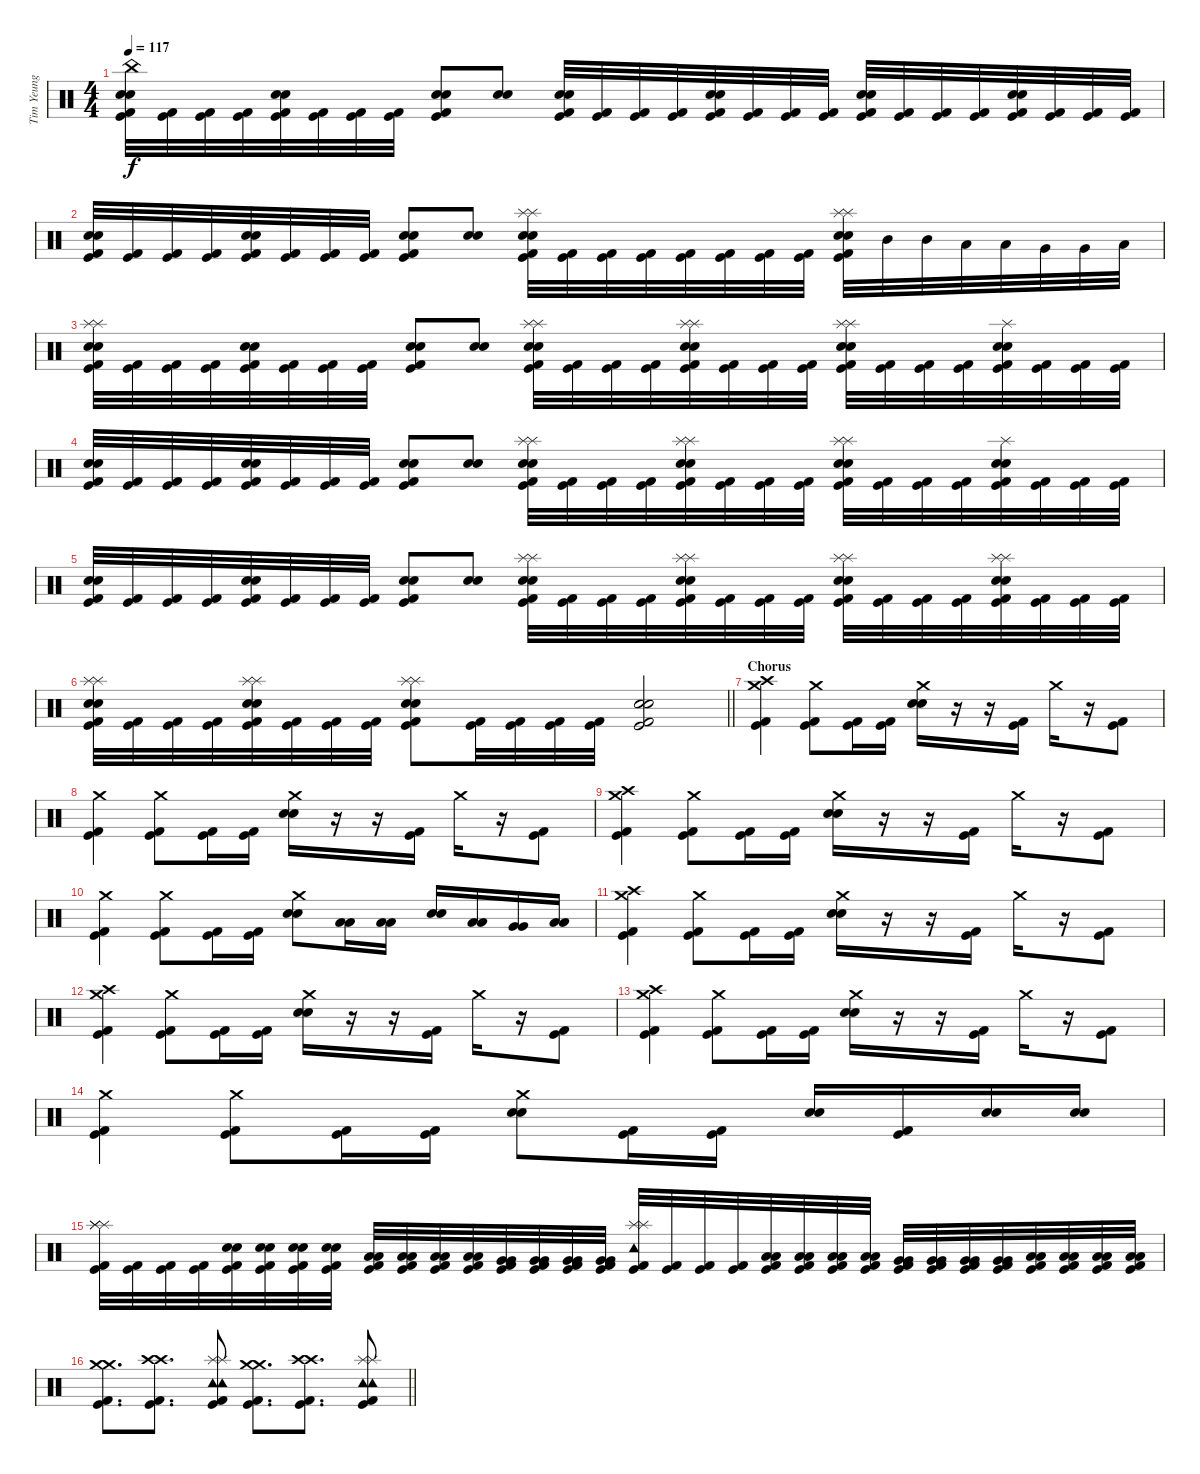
\track ("Tim Yeung" "Tim Yeung") {instrument percussion}
\staff {score}
\articulation defaults
\ts (4 4)
\tempo 117
\clef neutral
\ks c
("China (hit)" "Electric Snare (hit)" "Snare (hit) 2" "Kick (hit)" "Kick (hit) 2").32{dy f} ("Kick (hit)" "Kick (hit) 2").32 ("Kick (hit)" "Kick (hit) 2").32 ("Kick (hit)" "Kick (hit) 2").32 ("Electric Snare (hit)" "Snare (hit) 2" "Kick (hit)" "Kick (hit) 2").32 ("Kick (hit)" "Kick (hit) 2").32 ("Kick (hit)" "Kick (hit) 2").32 ("Kick (hit)" "Kick (hit) 2").32 ("Electric Snare (hit)" "Snare (hit) 2" "Kick (hit)" "Kick (hit) 2").8 ("Electric Snare (hit)" "Snare (hit) 2").8 ("Electric Snare (hit)" "Snare (hit) 2" "Kick (hit)" "Kick (hit) 2").32 ("Kick (hit)" "Kick (hit) 2").32 ("Kick (hit)" "Kick (hit) 2").32 ("Kick (hit)" "Kick (hit) 2").32 ("Electric Snare (hit)" "Snare (hit) 2" "Kick (hit)" "Kick (hit) 2").32 ("Kick (hit)" "Kick (hit) 2").32 ("Kick (hit)" "Kick (hit) 2").32 ("Kick (hit)" "Kick (hit) 2").32 ("Electric Snare (hit)" "Snare (hit) 2" "Kick (hit)" "Kick (hit) 2").32 ("Kick (hit)" "Kick (hit) 2").32 ("Kick (hit)" "Kick (hit) 2").32 ("Kick (hit)" "Kick (hit) 2").32 ("Electric Snare (hit)" "Snare (hit) 2" "Kick (hit)" "Kick (hit) 2").32 ("Kick (hit)" "Kick (hit) 2").32 ("Kick (hit)" "Kick (hit) 2").32 ("Kick (hit)" "Kick (hit) 2").32 |
("Electric Snare (hit)" "Snare (hit) 2" "Kick (hit)" "Kick (hit) 2").32 ("Kick (hit)" "Kick (hit) 2").32 ("Kick (hit)" "Kick (hit) 2").32 ("Kick (hit)" "Kick (hit) 2").32 ("Electric Snare (hit)" "Snare (hit) 2" "Kick (hit)" "Kick (hit) 2").32 ("Kick (hit)" "Kick (hit) 2").32 ("Kick (hit)" "Kick (hit) 2").32 ("Kick (hit)" "Kick (hit) 2").32 ("Electric Snare (hit)" "Snare (hit) 2" "Kick (hit)" "Kick (hit) 2").8 ("Electric Snare (hit)" "Snare (hit) 2").8 ("Splash (hit)" "Splash (hit)" "Electric Snare (hit)" "Snare (hit) 2" "Kick (hit)" "Kick (hit) 2").32 ("Kick (hit)" "Kick (hit) 2").32 ("Kick (hit)" "Kick (hit) 2").32 ("Kick (hit)" "Kick (hit) 2").32 ("Kick (hit)" "Kick (hit) 2").32 ("Kick (hit)" "Kick (hit) 2").32 ("Kick (hit)" "Kick (hit) 2").32 ("Kick (hit)" "Kick (hit) 2").32 ("Splash (hit)" "Splash (hit)" "Electric Snare (hit)" "Snare (hit) 2" "Kick (hit)" "Kick (hit) 2").32 "Mid Tom (hit)".32 "Mid Tom (hit)".32 "Low Tom (hit)".32 "Low Tom (hit)".32 "Very Low Tom (hit)".32 "Very Low Tom (hit)".32 "Low Floor Tom (hit)".32 |
("Splash (hit)" "Splash (hit)" "Electric Snare (hit)" "Snare (hit) 2" "Kick (hit)" "Kick (hit) 2").32 ("Kick (hit)" "Kick (hit) 2").32 ("Kick (hit)" "Kick (hit) 2").32 ("Kick (hit)" "Kick (hit) 2").32 ("Electric Snare (hit)" "Snare (hit) 2" "Kick (hit)" "Kick (hit) 2").32 ("Kick (hit)" "Kick (hit) 2").32 ("Kick (hit)" "Kick (hit) 2").32 ("Kick (hit)" "Kick (hit) 2").32 ("Electric Snare (hit)" "Snare (hit) 2" "Kick (hit)" "Kick (hit) 2").8 ("Electric Snare (hit)" "Snare (hit) 2").8 ("Splash (hit)" "Splash (hit)" "Electric Snare (hit)" "Snare (hit) 2" "Kick (hit)" "Kick (hit) 2").32 ("Kick (hit)" "Kick (hit) 2").32 ("Kick (hit)" "Kick (hit) 2").32 ("Kick (hit)" "Kick (hit) 2").32 ("Splash (hit)" "Splash (hit)" "Electric Snare (hit)" "Snare (hit) 2" "Kick (hit)" "Kick (hit) 2").32 ("Kick (hit)" "Kick (hit) 2").32 ("Kick (hit)" "Kick (hit) 2").32 ("Kick (hit)" "Kick (hit) 2").32 ("Splash (hit)" "Splash (hit)" "Electric Snare (hit)" "Snare (hit) 2" "Kick (hit)" "Kick (hit) 2").32 ("Kick (hit)" "Kick (hit) 2").32 ("Kick (hit)" "Kick (hit) 2").32 ("Kick (hit)" "Kick (hit) 2").32 ("Splash (hit)" "Electric Snare (hit)" "Snare (hit) 2" "Kick (hit)" "Kick (hit) 2").32 ("Kick (hit)" "Kick (hit) 2").32 ("Kick (hit)" "Kick (hit) 2").32 ("Kick (hit)" "Kick (hit) 2").32 |
("Electric Snare (hit)" "Snare (hit) 2" "Kick (hit)" "Kick (hit) 2").32 ("Kick (hit)" "Kick (hit) 2").32 ("Kick (hit)" "Kick (hit) 2").32 ("Kick (hit)" "Kick (hit) 2").32 ("Electric Snare (hit)" "Snare (hit) 2" "Kick (hit)" "Kick (hit) 2").32 ("Kick (hit)" "Kick (hit) 2").32 ("Kick (hit)" "Kick (hit) 2").32 ("Kick (hit)" "Kick (hit) 2").32 ("Electric Snare (hit)" "Snare (hit) 2" "Kick (hit)" "Kick (hit) 2").8 ("Electric Snare (hit)" "Snare (hit) 2").8 ("Splash (hit)" "Splash (hit)" "Electric Snare (hit)" "Snare (hit) 2" "Kick (hit)" "Kick (hit) 2").32 ("Kick (hit)" "Kick (hit) 2").32 ("Kick (hit)" "Kick (hit) 2").32 ("Kick (hit)" "Kick (hit) 2").32 ("Splash (hit)" "Splash (hit)" "Electric Snare (hit)" "Snare (hit) 2" "Kick (hit)" "Kick (hit) 2").32 ("Kick (hit)" "Kick (hit) 2").32 ("Kick (hit)" "Kick (hit) 2").32 ("Kick (hit)" "Kick (hit) 2").32 ("Splash (hit)" "Splash (hit)" "Electric Snare (hit)" "Snare (hit) 2" "Kick (hit)" "Kick (hit) 2").32 ("Kick (hit)" "Kick (hit) 2").32 ("Kick (hit)" "Kick (hit) 2").32 ("Kick (hit)" "Kick (hit) 2").32 ("Splash (hit)" "Electric Snare (hit)" "Snare (hit) 2" "Kick (hit)" "Kick (hit) 2").32 ("Kick (hit)" "Kick (hit) 2").32 ("Kick (hit)" "Kick (hit) 2").32 ("Kick (hit)" "Kick (hit) 2").32 |
("Electric Snare (hit)" "Snare (hit) 2" "Kick (hit)" "Kick (hit) 2").32 ("Kick (hit)" "Kick (hit) 2").32 ("Kick (hit)" "Kick (hit) 2").32 ("Kick (hit)" "Kick (hit) 2").32 ("Electric Snare (hit)" "Snare (hit) 2" "Kick (hit)" "Kick (hit) 2").32 ("Kick (hit)" "Kick (hit) 2").32 ("Kick (hit)" "Kick (hit) 2").32 ("Kick (hit)" "Kick (hit) 2").32 ("Electric Snare (hit)" "Snare (hit) 2" "Kick (hit)" "Kick (hit) 2").8 ("Electric Snare (hit)" "Snare (hit) 2").8 ("Splash (hit)" "Splash (hit)" "Electric Snare (hit)" "Snare (hit) 2" "Kick (hit)" "Kick (hit) 2").32 ("Kick (hit)" "Kick (hit) 2").32 ("Kick (hit)" "Kick (hit) 2").32 ("Kick (hit)" "Kick (hit) 2").32 ("Splash (hit)" "Splash (hit)" "Electric Snare (hit)" "Snare (hit) 2" "Kick (hit)" "Kick (hit) 2").32 ("Kick (hit)" "Kick (hit) 2").32 ("Kick (hit)" "Kick (hit) 2").32 ("Kick (hit)" "Kick (hit) 2").32 ("Splash (hit)" "Splash (hit)" "Electric Snare (hit)" "Snare (hit) 2" "Kick (hit)" "Kick (hit) 2").32 ("Kick (hit)" "Kick (hit) 2").32 ("Kick (hit)" "Kick (hit) 2").32 ("Kick (hit)" "Kick (hit) 2").32 ("Splash (hit)" "Splash (hit)" "Electric Snare (hit)" "Snare (hit) 2" "Kick (hit)" "Kick (hit) 2").32 ("Kick (hit)" "Kick (hit) 2").32 ("Kick (hit)" "Kick (hit) 2").32 ("Kick (hit)" "Kick (hit) 2").32 |
\barLineRight lightlight
("Splash (hit)" "Splash (hit)" "Electric Snare (hit)" "Snare (hit) 2" "Kick (hit)" "Kick (hit) 2").32 ("Kick (hit)" "Kick (hit) 2").32 ("Kick (hit)" "Kick (hit) 2").32 ("Kick (hit)" "Kick (hit) 2").32 ("Splash (hit)" "Splash (hit)" "Electric Snare (hit)" "Snare (hit) 2" "Kick (hit)" "Kick (hit) 2").32 ("Kick (hit)" "Kick (hit) 2").32 ("Kick (hit)" "Kick (hit) 2").32 ("Kick (hit)" "Kick (hit) 2").32 ("Splash (hit)" "Splash (hit)" "Electric Snare (hit)" "Snare (hit) 2" "Kick (hit)" "Kick (hit) 2").8 ("Kick (hit)" "Kick (hit) 2").32 ("Kick (hit)" "Kick (hit) 2").32 ("Kick (hit)" "Kick (hit) 2").32 ("Kick (hit)" "Kick (hit) 2").32 ("Electric Snare (hit)" "Snare (hit) 2" "Kick (hit)" "Kick (hit) 2").2 |
\section ("" "Chorus")
("Crash high (hit)" "Crash medium (hit)" "Kick (hit)" "Kick (hit) 2").4 ("Crash medium (hit)" "Kick (hit)" "Kick (hit) 2").8 ("Kick (hit)" "Kick (hit) 2").16 ("Kick (hit)" "Kick (hit) 2").16 ("Crash medium (hit)" "Electric Snare (hit)" "Snare (hit) 2").16 r.16 r.16 ("Kick (hit)" "Kick (hit) 2").16 "Crash medium (hit)".16 r.16 ("Kick (hit)" "Kick (hit) 2").8 |
("Crash medium (hit)" "Kick (hit)" "Kick (hit) 2").4 ("Crash medium (hit)" "Kick (hit)" "Kick (hit) 2").8 ("Kick (hit)" "Kick (hit) 2").16 ("Kick (hit)" "Kick (hit) 2").16 ("Crash medium (hit)" "Electric Snare (hit)" "Snare (hit) 2").16 r.16 r.16 ("Kick (hit)" "Kick (hit) 2").16 "Crash medium (hit)".16 r.16 ("Kick (hit)" "Kick (hit) 2").8 |
("Crash high (hit)" "Crash medium (hit)" "Kick (hit)" "Kick (hit) 2").4 ("Crash medium (hit)" "Kick (hit)" "Kick (hit) 2").8 ("Kick (hit)" "Kick (hit) 2").16 ("Kick (hit)" "Kick (hit) 2").16 ("Crash medium (hit)" "Electric Snare (hit)" "Snare (hit) 2").16 r.16 r.16 ("Kick (hit)" "Kick (hit) 2").16 "Crash medium (hit)".16 r.16 ("Kick (hit)" "Kick (hit) 2").8 |
("Crash medium (hit)" "Kick (hit)" "Kick (hit) 2").4 ("Crash medium (hit)" "Kick (hit)" "Kick (hit) 2").8 ("Kick (hit)" "Kick (hit) 2").16 ("Kick (hit)" "Kick (hit) 2").16 ("Crash medium (hit)" "Electric Snare (hit)" "Snare (hit) 2").8 ("Low Tom (hit)" "Low Tom (hit)").16 ("Low Tom (hit)" "Low Tom (hit)").16 ("Electric Snare (hit)" "Snare (hit) 2").16 ("Low Tom (hit)" "Low Tom (hit)").16 ("Very Low Tom (hit)" "Very Low Tom (hit)").16 ("Low Floor Tom (hit)" "Low Floor Tom (hit)").16 |
("Crash high (hit)" "Crash medium (hit)" "Kick (hit)" "Kick (hit) 2").4 ("Crash medium (hit)" "Kick (hit)" "Kick (hit) 2").8 ("Kick (hit)" "Kick (hit) 2").16 ("Kick (hit)" "Kick (hit) 2").16 ("Crash medium (hit)" "Electric Snare (hit)" "Snare (hit) 2").16 r.16 r.16 ("Kick (hit)" "Kick (hit) 2").16 "Crash medium (hit)".16 r.16 ("Kick (hit)" "Kick (hit) 2").8 |
("Crash high (hit)" "Crash medium (hit)" "Kick (hit)" "Kick (hit) 2").4 ("Crash medium (hit)" "Kick (hit)" "Kick (hit) 2").8 ("Kick (hit)" "Kick (hit) 2").16 ("Kick (hit)" "Kick (hit) 2").16 ("Crash medium (hit)" "Electric Snare (hit)" "Snare (hit) 2").16 r.16 r.16 ("Kick (hit)" "Kick (hit) 2").16 "Crash medium (hit)".16 r.16 ("Kick (hit)" "Kick (hit) 2").8 |
("Crash high (hit)" "Crash medium (hit)" "Kick (hit)" "Kick (hit) 2").4 ("Crash medium (hit)" "Kick (hit)" "Kick (hit) 2").8 ("Kick (hit)" "Kick (hit) 2").16 ("Kick (hit)" "Kick (hit) 2").16 ("Crash medium (hit)" "Electric Snare (hit)" "Snare (hit) 2").16 r.16 r.16 ("Kick (hit)" "Kick (hit) 2").16 "Crash medium (hit)".16 r.16 ("Kick (hit)" "Kick (hit) 2").8 |
("Crash medium (hit)" "Kick (hit)" "Kick (hit) 2").4 ("Crash medium (hit)" "Kick (hit)" "Kick (hit) 2").8 ("Kick (hit)" "Kick (hit) 2").16 ("Kick (hit)" "Kick (hit) 2").16 ("Crash medium (hit)" "Electric Snare (hit)" "Snare (hit) 2").8 ("Kick (hit)" "Kick (hit) 2").16 ("Kick (hit)" "Kick (hit) 2").16 ("Electric Snare (hit)" "Snare (hit) 2").16 ("Kick (hit)" "Kick (hit) 2").16 ("Electric Snare (hit)" "Snare (hit) 2").16 ("Electric Snare (hit)" "Snare (hit) 2").16 |
("Splash (hit)" "Splash (hit)" "Splash (hit)" "Kick (hit)" "Kick (hit) 2").32 ("Kick (hit)" "Kick (hit) 2").32 ("Kick (hit)" "Kick (hit) 2").32 ("Kick (hit)" "Kick (hit) 2").32 ("Electric Snare (hit)" "Snare (hit) 2" "Kick (hit)" "Kick (hit) 2").32 ("Electric Snare (hit)" "Snare (hit) 2" "Kick (hit)" "Kick (hit) 2").32 ("Electric Snare (hit)" "Snare (hit) 2" "Kick (hit)" "Kick (hit) 2").32 ("Electric Snare (hit)" "Snare (hit) 2" "Kick (hit)" "Kick (hit) 2").32 ("Low Tom (hit)" "Low Tom (hit)" "Kick (hit)" "Kick (hit) 2").32 ("Low Tom (hit)" "Low Tom (hit)" "Kick (hit)" "Kick (hit) 2").32 ("Low Tom (hit)" "Low Tom (hit)" "Kick (hit)" "Kick (hit) 2").32 ("Low Tom (hit)" "Low Tom (hit)" "Kick (hit)" "Kick (hit) 2").32 ("Very Low Tom (hit)" "Very Low Tom (hit)" "Kick (hit)" "Kick (hit) 2").32 ("Very Low Tom (hit)" "Very Low Tom (hit)" "Kick (hit)" "Kick (hit) 2").32 ("Very Low Tom (hit)" "Very Low Tom (hit)" "Kick (hit)" "Kick (hit) 2").32 ("Very Low Tom (hit)" "Very Low Tom (hit)" "Kick (hit)" "Kick (hit) 2").32 ("Tambourine (hit)" "Splash (hit)" "Splash (hit)" "Kick (hit)" "Kick (hit) 2").32 ("Kick (hit)" "Kick (hit) 2").32 ("Kick (hit)" "Kick (hit) 2").32 ("Kick (hit)" "Kick (hit) 2").32 ("Low Tom (hit)" "Low Tom (hit)" "Kick (hit)" "Kick (hit) 2").32 ("Low Tom (hit)" "Low Tom (hit)" "Kick (hit)" "Kick (hit) 2").32 ("Low Tom (hit)" "Low Tom (hit)" "Kick (hit)" "Kick (hit) 2").32 ("Low Tom (hit)" "Low Tom (hit)" "Kick (hit)" "Kick (hit) 2").32 ("Very Low Tom (hit)" "Very Low Tom (hit)" "Kick (hit)" "Kick (hit) 2").32 ("Very Low Tom (hit)" "Very Low Tom (hit)" "Kick (hit)" "Kick (hit) 2").32 ("Very Low Tom (hit)" "Very Low Tom (hit)" "Kick (hit)" "Kick (hit) 2").32 ("Very Low Tom (hit)" "Very Low Tom (hit)" "Kick (hit)" "Kick (hit) 2").32 ("Low Floor Tom (hit)" "Low Floor Tom (hit)" "Kick (hit)" "Kick (hit) 2").32 ("Low Floor Tom (hit)" "Low Floor Tom (hit)" "Kick (hit)" "Kick (hit) 2").32 ("Low Floor Tom (hit)" "Low Floor Tom (hit)" "Kick (hit)" "Kick (hit) 2").32 ("Low Floor Tom (hit)" "Low Floor Tom (hit)" "Kick (hit)" "Kick (hit) 2").32 |
\barLineRight lightlight
("Crash medium (hit)" "Crash medium (hit)" "Kick (hit)" "Kick (hit) 2").8{d} ("Crash high (hit)" "Crash high (hit)" "Kick (hit)" "Kick (hit) 2").8{d} ("Tambourine (hit)" "Tambourine (hit)" "Splash (hit)" "Splash (hit)" "Kick (hit)" "Kick (hit) 2").8 ("Crash medium (hit)" "Crash medium (hit)" "Kick (hit)" "Kick (hit) 2").8{d} ("Crash high (hit)" "Crash high (hit)" "Kick (hit)" "Kick (hit) 2").8{d} ("Tambourine (hit)" "Tambourine (hit)" "Splash (hit)" "Splash (hit)" "Kick (hit)" "Kick (hit) 2").8
